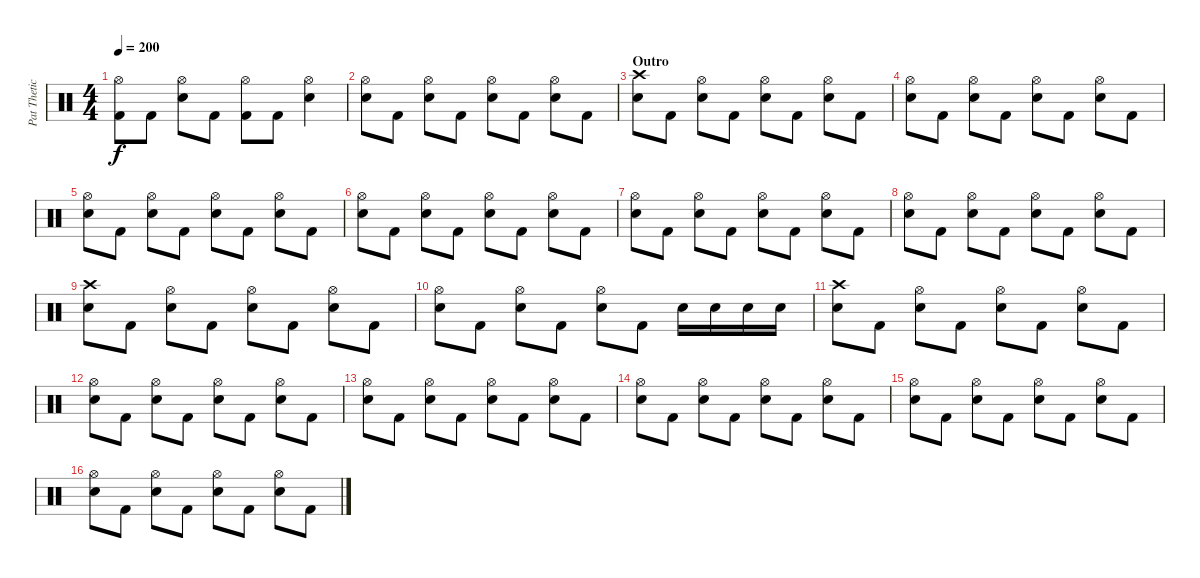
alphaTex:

\track ("Pat Thetic (Drums)" "Pat Thetic") {instrument percussion}
\staff {score}
\articulation defaults
\ts (4 4)
\tempo 200
\clef neutral
\ks c
("Hi-Hat (open)" "Kick (hit) 2").8{dy f} "Kick (hit) 2".8 ("Hi-Hat (open)" "Electric Snare (hit)").8 "Kick (hit) 2".8 ("Hi-Hat (open)" "Kick (hit) 2").8 "Kick (hit) 2".8 ("Hi-Hat (open)" "Electric Snare (hit)").4 |
("Hi-Hat (open)" "Electric Snare (hit)").8 "Kick (hit) 2".8 ("Hi-Hat (open)" "Electric Snare (hit)").8 "Kick (hit) 2".8 ("Hi-Hat (open)" "Electric Snare (hit)").8 "Kick (hit) 2".8 ("Hi-Hat (open)" "Electric Snare (hit)").8 "Kick (hit) 2".8 |
\section ("" "Outro")
("Crash high (hit)" "Electric Snare (hit)").8 "Kick (hit) 2".8 ("Hi-Hat (open)" "Electric Snare (hit)").8 "Kick (hit) 2".8 ("Hi-Hat (open)" "Electric Snare (hit)").8 "Kick (hit) 2".8 ("Hi-Hat (open)" "Electric Snare (hit)").8 "Kick (hit) 2".8 |
("Hi-Hat (open)" "Electric Snare (hit)").8 "Kick (hit) 2".8 ("Hi-Hat (open)" "Electric Snare (hit)").8 "Kick (hit) 2".8 ("Hi-Hat (open)" "Electric Snare (hit)").8 "Kick (hit) 2".8 ("Hi-Hat (open)" "Electric Snare (hit)").8 "Kick (hit) 2".8 |
("Hi-Hat (open)" "Electric Snare (hit)").8 "Kick (hit) 2".8 ("Hi-Hat (open)" "Electric Snare (hit)").8 "Kick (hit) 2".8 ("Hi-Hat (open)" "Electric Snare (hit)").8 "Kick (hit) 2".8 ("Hi-Hat (open)" "Electric Snare (hit)").8 "Kick (hit) 2".8 |
("Hi-Hat (open)" "Electric Snare (hit)").8 "Kick (hit) 2".8 ("Hi-Hat (open)" "Electric Snare (hit)").8 "Kick (hit) 2".8 ("Hi-Hat (open)" "Electric Snare (hit)").8 "Kick (hit) 2".8 ("Hi-Hat (open)" "Electric Snare (hit)").8 "Kick (hit) 2".8 |
("Hi-Hat (open)" "Electric Snare (hit)").8 "Kick (hit) 2".8 ("Hi-Hat (open)" "Electric Snare (hit)").8 "Kick (hit) 2".8 ("Hi-Hat (open)" "Electric Snare (hit)").8 "Kick (hit) 2".8 ("Hi-Hat (open)" "Electric Snare (hit)").8 "Kick (hit) 2".8 |
("Hi-Hat (open)" "Electric Snare (hit)").8 "Kick (hit) 2".8 ("Hi-Hat (open)" "Electric Snare (hit)").8 "Kick (hit) 2".8 ("Hi-Hat (open)" "Electric Snare (hit)").8 "Kick (hit) 2".8 ("Hi-Hat (open)" "Electric Snare (hit)").8 "Kick (hit) 2".8 |
("Crash high (hit)" "Electric Snare (hit)").8 "Kick (hit) 2".8 ("Hi-Hat (open)" "Electric Snare (hit)").8 "Kick (hit) 2".8 ("Hi-Hat (open)" "Electric Snare (hit)").8 "Kick (hit) 2".8 ("Hi-Hat (open)" "Electric Snare (hit)").8 "Kick (hit) 2".8 |
("Hi-Hat (open)" "Electric Snare (hit)").8 "Kick (hit) 2".8 ("Hi-Hat (open)" "Electric Snare (hit)").8 "Kick (hit) 2".8 ("Hi-Hat (open)" "Electric Snare (hit)").8 "Kick (hit) 2".8 "Electric Snare (hit)".16 "Electric Snare (hit)".16 "Electric Snare (hit)".16 "Electric Snare (hit)".16 |
("Crash high (hit)" "Electric Snare (hit)").8 "Kick (hit) 2".8 ("Hi-Hat (open)" "Electric Snare (hit)").8 "Kick (hit) 2".8 ("Hi-Hat (open)" "Electric Snare (hit)").8 "Kick (hit) 2".8 ("Hi-Hat (open)" "Electric Snare (hit)").8 "Kick (hit) 2".8 |
("Hi-Hat (open)" "Electric Snare (hit)").8 "Kick (hit) 2".8 ("Hi-Hat (open)" "Electric Snare (hit)").8 "Kick (hit) 2".8 ("Hi-Hat (open)" "Electric Snare (hit)").8 "Kick (hit) 2".8 ("Hi-Hat (open)" "Electric Snare (hit)").8 "Kick (hit) 2".8 |
("Hi-Hat (open)" "Electric Snare (hit)").8 "Kick (hit) 2".8 ("Hi-Hat (open)" "Electric Snare (hit)").8 "Kick (hit) 2".8 ("Hi-Hat (open)" "Electric Snare (hit)").8 "Kick (hit) 2".8 ("Hi-Hat (open)" "Electric Snare (hit)").8 "Kick (hit) 2".8 |
("Hi-Hat (open)" "Electric Snare (hit)").8 "Kick (hit) 2".8 ("Hi-Hat (open)" "Electric Snare (hit)").8 "Kick (hit) 2".8 ("Hi-Hat (open)" "Electric Snare (hit)").8 "Kick (hit) 2".8 ("Hi-Hat (open)" "Electric Snare (hit)").8 "Kick (hit) 2".8 |
("Hi-Hat (open)" "Electric Snare (hit)").8 "Kick (hit) 2".8 ("Hi-Hat (open)" "Electric Snare (hit)").8 "Kick (hit) 2".8 ("Hi-Hat (open)" "Electric Snare (hit)").8 "Kick (hit) 2".8 ("Hi-Hat (open)" "Electric Snare (hit)").8 "Kick (hit) 2".8 |
("Hi-Hat (open)" "Electric Snare (hit)").8 "Kick (hit) 2".8 ("Hi-Hat (open)" "Electric Snare (hit)").8 "Kick (hit) 2".8 ("Hi-Hat (open)" "Electric Snare (hit)").8 "Kick (hit) 2".8 ("Hi-Hat (open)" "Electric Snare (hit)").8 "Kick (hit) 2".8
